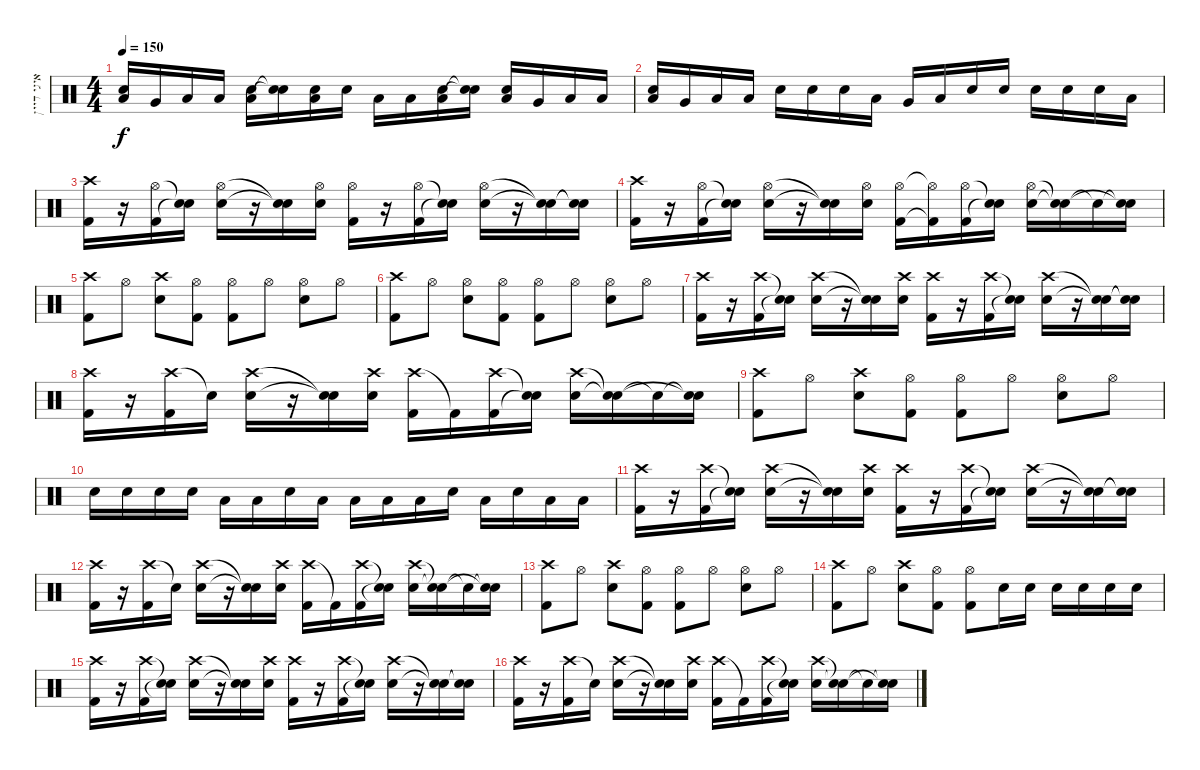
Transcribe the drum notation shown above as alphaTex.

\track ("איגי דיין" "איגי דיין") {instrument percussion}
\staff {score}
\articulation defaults
\ts (4 4)
\tempo 150
\clef neutral
\ks c
("Electric Snare (hit)" "Low Tom (hit)").16{dy f} "Very Low Tom (hit)".16 "Low Tom (hit)".16 "Low Floor Tom (hit)".16 ("Electric Snare (hit)" "Low Floor Tom (hit)").16 ("Snare (hit)"{t} "Snare (hit)"{t}).16 ("Electric Snare (hit)" "Low Tom (hit)").16 "Electric Snare (hit)".16 "Low Tom (hit)".16 "Low Floor Tom (hit)".16 ("Electric Snare (hit)" "Low Floor Tom (hit)").16 ("Snare (hit)"{t} "Snare (hit)"{t}).16 ("Electric Snare (hit)" "Low Tom (hit)").16 "Very Low Tom (hit)".16 "Low Tom (hit)".16 "Low Floor Tom (hit)".16 |
("Electric Snare (hit)" "Low Tom (hit)").16 "Very Low Tom (hit)".16 "Low Tom (hit)".16 "Low Floor Tom (hit)".16 "Electric Snare (hit)".16 "Electric Snare (hit)".16 "Electric Snare (hit)".16 "Low Tom (hit)".16 "Very Low Tom (hit)".16 "Low Floor Tom (hit)".16 "Electric Snare (hit)".16 "Electric Snare (hit)".16 "Electric Snare (hit)".16 "Electric Snare (hit)".16 "Electric Snare (hit)".16 "Low Tom (hit)".16 |
("Crash high (hit)" "Kick (hit) 2").16 r.16 ("Hi-Hat (open)" "Kick (hit) 2").16 ("Snare (hit)"{t} "Snare (hit)"{t}).16 ("Hi-Hat (open)" "Electric Snare (hit)").16 r.16 ("Snare (hit)"{t} "Snare (hit)"{t}).16 ("Electric Snare (hit)" "Hi-Hat (open)").16 ("Hi-Hat (open)" "Kick (hit) 2").16 r.16 ("Hi-Hat (open)" "Kick (hit) 2").16 ("Snare (hit)"{t} "Snare (hit)"{t}).16 ("Hi-Hat (open)" "Electric Snare (hit)").16 r.16 ("Snare (hit)"{t} "Snare (hit)"{t}).16 ("Snare (hit)"{t} "Snare (hit)"{t}).16 |
("Crash high (hit)" "Kick (hit) 2").16 r.16 ("Hi-Hat (open)" "Kick (hit) 2").16 ("Snare (hit)"{t} "Snare (hit)"{t}).16 ("Hi-Hat (open)" "Electric Snare (hit)").16 r.16 ("Snare (hit)"{t} "Snare (hit)"{t}).16 ("Electric Snare (hit)" "Hi-Hat (open)").16 ("Hi-Hat (open)" "Kick (hit) 2").16 ("Hi-Hat (open)"{t} "Kick (hit) 2"{t}).16 ("Hi-Hat (open)" "Kick (hit) 2").16 ("Snare (hit)"{t} "Snare (hit)"{t}).16 ("Hi-Hat (open)" "Electric Snare (hit)").16 ("Snare (hit)"{t} "Snare (hit)"{t}).16 "Snare (hit)"{t}.16 ("Snare (hit)"{t} "Snare (hit)"{t}).16 |
("Crash high (hit)" "Kick (hit) 2").8 "Hi-Hat (open)".8 ("Crash high (hit)" "Electric Snare (hit)").8 ("Hi-Hat (open)" "Kick (hit) 2").8 ("Hi-Hat (open)" "Kick (hit) 2").8 "Hi-Hat (open)".8 ("Hi-Hat (open)" "Electric Snare (hit)").8 "Hi-Hat (open)".8 |
("Crash high (hit)" "Kick (hit) 2").8 "Hi-Hat (open)".8 ("Hi-Hat (open)" "Electric Snare (hit)").8 ("Hi-Hat (open)" "Kick (hit) 2").8 ("Hi-Hat (open)" "Kick (hit) 2").8 "Hi-Hat (open)".8 ("Hi-Hat (open)" "Electric Snare (hit)").8 "Hi-Hat (open)".8 |
("Crash high (hit)" "Kick (hit) 2").16 r.16 ("Crash high (hit)" "Kick (hit) 2").16 ("Snare (hit)"{t} "Snare (hit)"{t}).16 ("Crash high (hit)" "Electric Snare (hit)").16 r.16 ("Snare (hit)"{t} "Snare (hit)"{t}).16 ("Crash high (hit)" "Electric Snare (hit)").16 ("Crash high (hit)" "Kick (hit) 2").16 r.16 ("Crash high (hit)" "Kick (hit) 2").16 ("Snare (hit)"{t} "Snare (hit)"{t}).16 ("Crash high (hit)" "Electric Snare (hit)").16 r.16 ("Snare (hit)"{t} "Snare (hit)"{t}).16 ("Snare (hit)"{t} "Snare (hit)"{t}).16 |
("Crash high (hit)" "Kick (hit) 2").16 r.16 ("Crash high (hit)" "Kick (hit) 2").16 "Snare (hit)"{t}.16 ("Crash high (hit)" "Electric Snare (hit)").16 r.16 ("Snare (hit)"{t} "Snare (hit)"{t}).16 ("Crash high (hit)" "Electric Snare (hit)").16 ("Crash high (hit)" "Kick (hit) 2").16 "Kick (hit) 2"{t}.16 ("Crash high (hit)" "Kick (hit) 2").16 ("Snare (hit)"{t} "Snare (hit)"{t}).16 ("Crash high (hit)" "Electric Snare (hit)").16 ("Snare (hit)"{t} "Snare (hit)"{t}).16 "Snare (hit)"{t}.16 ("Snare (hit)"{t} "Snare (hit)"{t}).16 |
("Crash high (hit)" "Kick (hit) 2").8 "Hi-Hat (open)".8 ("Crash high (hit)" "Electric Snare (hit)").8 ("Hi-Hat (open)" "Kick (hit) 2").8 ("Hi-Hat (open)" "Kick (hit) 2").8 "Hi-Hat (open)".8 ("Hi-Hat (open)" "Electric Snare (hit)").8 "Hi-Hat (open)".8 |
"Electric Snare (hit)".16 "Electric Snare (hit)".16 "Electric Snare (hit)".16 "Electric Snare (hit)".16 "Low Tom (hit)".16 "Low Tom (hit)".16 "Electric Snare (hit)".16 "Low Tom (hit)".16 "Low Tom (hit)".16 "Low Floor Tom (hit)".16 "Low Floor Tom (hit)".16 "Electric Snare (hit)".16 "Low Tom (hit)".16 "Electric Snare (hit)".16 "Low Tom (hit)".16 "Low Floor Tom (hit)".16 |
("Crash high (hit)" "Kick (hit) 2").16 r.16 ("Crash high (hit)" "Kick (hit) 2").16 ("Snare (hit)"{t} "Snare (hit)"{t}).16 ("Crash high (hit)" "Electric Snare (hit)").16 r.16 ("Snare (hit)"{t} "Snare (hit)"{t}).16 ("Crash high (hit)" "Electric Snare (hit)").16 ("Crash high (hit)" "Kick (hit) 2").16 r.16 ("Crash high (hit)" "Kick (hit) 2").16 ("Snare (hit)"{t} "Snare (hit)"{t}).16 ("Crash high (hit)" "Electric Snare (hit)").16 r.16 ("Snare (hit)"{t} "Snare (hit)"{t}).16 ("Snare (hit)"{t} "Snare (hit)"{t}).16 |
("Crash high (hit)" "Kick (hit) 2").16 r.16 ("Crash high (hit)" "Kick (hit) 2").16 "Snare (hit)"{t}.16 ("Crash high (hit)" "Electric Snare (hit)").16 r.16 ("Snare (hit)"{t} "Snare (hit)"{t}).16 ("Crash high (hit)" "Electric Snare (hit)").16 ("Crash high (hit)" "Kick (hit) 2").16 "Kick (hit) 2"{t}.16 ("Crash high (hit)" "Kick (hit) 2").16 ("Snare (hit)"{t} "Snare (hit)"{t}).16 ("Crash high (hit)" "Electric Snare (hit)").16 ("Snare (hit)"{t} "Snare (hit)"{t}).16 "Snare (hit)"{t}.16 ("Snare (hit)"{t} "Snare (hit)"{t}).16 |
("Crash high (hit)" "Kick (hit) 2").8 "Hi-Hat (open)".8 ("Crash high (hit)" "Electric Snare (hit)").8 ("Hi-Hat (open)" "Kick (hit) 2").8 ("Hi-Hat (open)" "Kick (hit) 2").8 "Hi-Hat (open)".8 ("Hi-Hat (open)" "Electric Snare (hit)").8 "Hi-Hat (open)".8 |
("Crash high (hit)" "Kick (hit) 2").8 "Hi-Hat (open)".8 ("Crash high (hit)" "Electric Snare (hit)").8 ("Hi-Hat (open)" "Kick (hit) 2").8 ("Hi-Hat (open)" "Kick (hit) 2").8 "Electric Snare (hit)".16 "Electric Snare (hit)".16 "Electric Snare (hit)".16 "Electric Snare (hit)".16 "Electric Snare (hit)".16 "Electric Snare (hit)".16 |
("Crash high (hit)" "Kick (hit) 2").16 r.16 ("Crash high (hit)" "Kick (hit) 2").16 ("Snare (hit)"{t} "Snare (hit)"{t}).16 ("Crash high (hit)" "Electric Snare (hit)").16 r.16 ("Snare (hit)"{t} "Snare (hit)"{t}).16 ("Crash high (hit)" "Electric Snare (hit)").16 ("Crash high (hit)" "Kick (hit) 2").16 r.16 ("Crash high (hit)" "Kick (hit) 2").16 ("Snare (hit)"{t} "Snare (hit)"{t}).16 ("Crash high (hit)" "Electric Snare (hit)").16 r.16 ("Snare (hit)"{t} "Snare (hit)"{t}).16 ("Snare (hit)"{t} "Snare (hit)"{t}).16 |
("Crash high (hit)" "Kick (hit) 2").16 r.16 ("Crash high (hit)" "Kick (hit) 2").16 "Snare (hit)"{t}.16 ("Crash high (hit)" "Electric Snare (hit)").16 r.16 ("Snare (hit)"{t} "Snare (hit)"{t}).16 ("Crash high (hit)" "Electric Snare (hit)").16 ("Crash high (hit)" "Kick (hit) 2").16 "Kick (hit) 2"{t}.16 ("Crash high (hit)" "Kick (hit) 2").16 ("Snare (hit)"{t} "Snare (hit)"{t}).16 ("Crash high (hit)" "Electric Snare (hit)").16 ("Snare (hit)"{t} "Snare (hit)"{t}).16 "Snare (hit)"{t}.16 ("Snare (hit)"{t} "Snare (hit)"{t}).16
